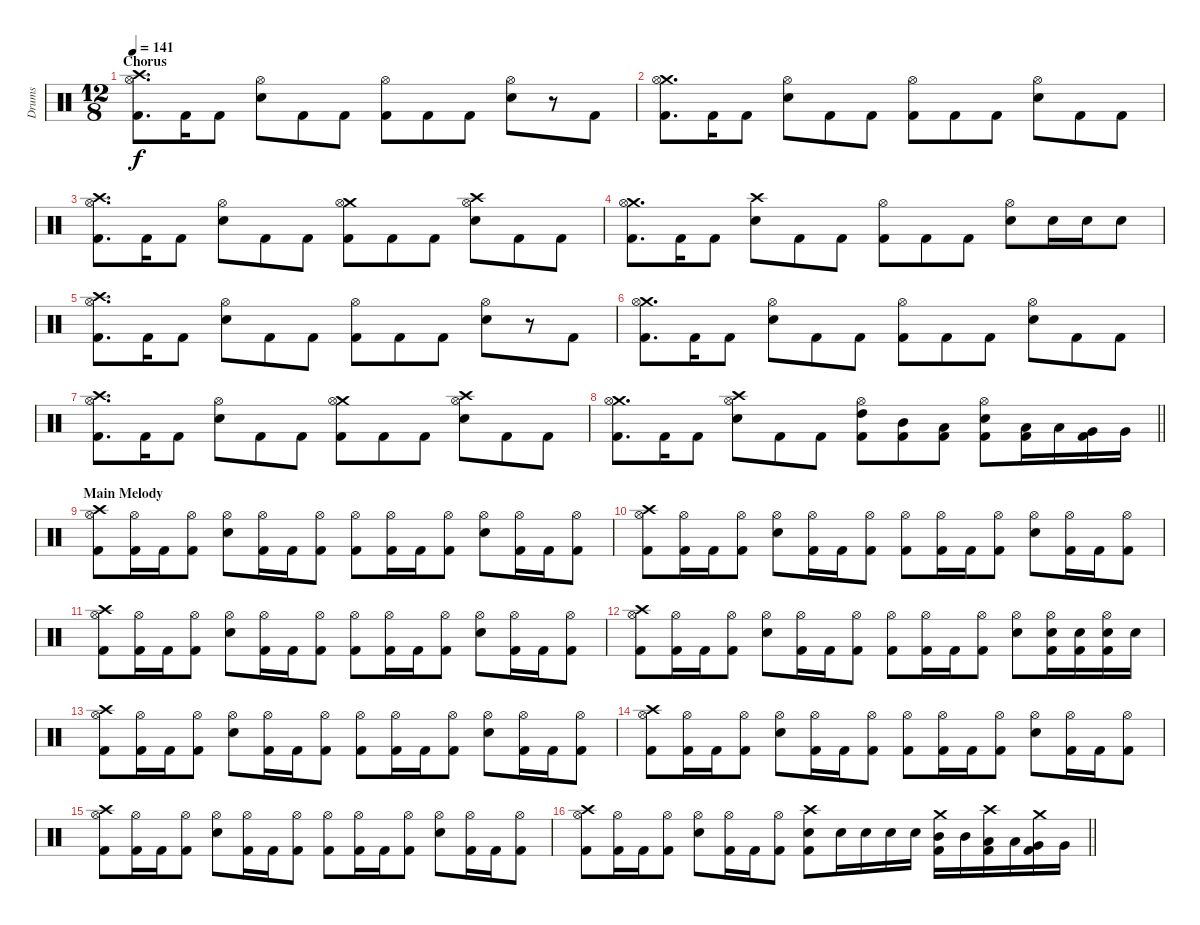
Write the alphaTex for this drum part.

\track ("Drums" "Drums") {instrument percussion}
\staff {score}
\articulation defaults
\ts (12 8)
\section ("" "Chorus")
\tempo 141
\clef neutral
\ks c
("Crash high (hit)" "Hi-Hat (open)" "Kick (hit) 2").8{d dy f} "Kick (hit) 2".16 "Kick (hit) 2".8 ("Hi-Hat (open)" "Snare (hit) 2").8 "Kick (hit) 2".8 "Kick (hit) 2".8 ("Hi-Hat (open)" "Kick (hit) 2").8 "Kick (hit) 2".8 "Kick (hit) 2".8 ("Hi-Hat (open)" "Snare (hit) 2").8 r.8 "Kick (hit) 2".8 |
("Crash medium (hit)" "Hi-Hat (open)" "Kick (hit) 2").8{d} "Kick (hit) 2".16 "Kick (hit) 2".8 ("Hi-Hat (open)" "Snare (hit) 2").8 "Kick (hit) 2".8 "Kick (hit) 2".8 ("Hi-Hat (open)" "Kick (hit) 2").8 "Kick (hit) 2".8 "Kick (hit) 2".8 ("Hi-Hat (open)" "Snare (hit) 2").8 "Kick (hit) 2".8 "Kick (hit) 2".8 |
("Crash high (hit)" "Hi-Hat (open)" "Kick (hit) 2").8{d} "Kick (hit) 2".16 "Kick (hit) 2".8 ("Hi-Hat (open)" "Snare (hit) 2").8 "Kick (hit) 2".8 "Kick (hit) 2".8 ("Crash medium (hit)" "Hi-Hat (open)" "Kick (hit) 2").8 "Kick (hit) 2".8 "Kick (hit) 2".8 ("Crash high (hit)" "Hi-Hat (open)" "Snare (hit) 2").8 "Kick (hit) 2".8 "Kick (hit) 2".8 |
("Crash medium (hit)" "Hi-Hat (open)" "Kick (hit) 2").8{d} "Kick (hit) 2".16 "Kick (hit) 2".8 ("Crash high (hit)" "Snare (hit) 2").8 "Kick (hit) 2".8 "Kick (hit) 2".8 ("Hi-Hat (open)" "Kick (hit) 2").8 "Kick (hit) 2".8 "Kick (hit) 2".8 ("Hi-Hat (open)" "Snare (hit) 2").8 "Snare (hit) 2".16 "Snare (hit) 2".16 "Snare (hit) 2".8 |
("Crash high (hit)" "Hi-Hat (open)" "Kick (hit) 2").8{d} "Kick (hit) 2".16 "Kick (hit) 2".8 ("Hi-Hat (open)" "Snare (hit) 2").8 "Kick (hit) 2".8 "Kick (hit) 2".8 ("Hi-Hat (open)" "Kick (hit) 2").8 "Kick (hit) 2".8 "Kick (hit) 2".8 ("Hi-Hat (open)" "Snare (hit) 2").8 r.8 "Kick (hit) 2".8 |
("Crash medium (hit)" "Hi-Hat (open)" "Kick (hit) 2").8{d} "Kick (hit) 2".16 "Kick (hit) 2".8 ("Hi-Hat (open)" "Snare (hit) 2").8 "Kick (hit) 2".8 "Kick (hit) 2".8 ("Hi-Hat (open)" "Kick (hit) 2").8 "Kick (hit) 2".8 "Kick (hit) 2".8 ("Hi-Hat (open)" "Snare (hit) 2").8 "Kick (hit) 2".8 "Kick (hit) 2".8 |
("Crash high (hit)" "Hi-Hat (open)" "Kick (hit) 2").8{d} "Kick (hit) 2".16 "Kick (hit) 2".8 ("Hi-Hat (open)" "Snare (hit) 2").8 "Kick (hit) 2".8 "Kick (hit) 2".8 ("Crash medium (hit)" "Hi-Hat (open)" "Kick (hit) 2").8 "Kick (hit) 2".8 "Kick (hit) 2".8 ("Crash high (hit)" "Hi-Hat (open)" "Snare (hit) 2").8 "Kick (hit) 2".8 "Kick (hit) 2".8 |
\barLineRight lightlight
("Crash medium (hit)" "Hi-Hat (open)" "Kick (hit) 2").8{d} "Kick (hit) 2".16 "Kick (hit) 2".8 ("Crash high (hit)" "Hi-Hat (open)" "Snare (hit) 2").8 "Kick (hit) 2".8 "Kick (hit) 2".8 ("Hi-Hat (open)" "High Tom (hit)" "Kick (hit) 2").8 ("Mid Tom (hit)" "Kick (hit) 2").8 ("Low Tom (hit)" "Kick (hit) 2").8 ("Hi-Hat (open)" "Snare (hit) 2" "Kick (hit) 2").8 ("Low Tom (hit)" "Kick (hit) 2").16 "Low Tom (hit)".16 ("Very Low Tom (hit)" "Kick (hit) 2").16 "Very Low Tom (hit)".16 |
\section ("" "Main Melody")
("Crash high (hit)" "Hi-Hat (open)" "Kick (hit) 2").8 ("Hi-Hat (open)" "Kick (hit) 2").16 "Kick (hit) 2".16 ("Hi-Hat (open)" "Kick (hit) 2").8 ("Hi-Hat (open)" "Snare (hit) 2").8 ("Hi-Hat (open)" "Kick (hit) 2").16 "Kick (hit) 2".16 ("Hi-Hat (open)" "Kick (hit) 2").8 ("Hi-Hat (open)" "Kick (hit) 2").8 ("Hi-Hat (open)" "Kick (hit) 2").16 "Kick (hit) 2".16 ("Hi-Hat (open)" "Kick (hit) 2").8 ("Hi-Hat (open)" "Snare (hit) 2").8 ("Hi-Hat (open)" "Kick (hit) 2").16 "Kick (hit) 2".16 ("Hi-Hat (open)" "Kick (hit) 2").8 |
("Crash high (hit)" "Hi-Hat (open)" "Kick (hit) 2").8 ("Hi-Hat (open)" "Kick (hit) 2").16 "Kick (hit) 2".16 ("Hi-Hat (open)" "Kick (hit) 2").8 ("Hi-Hat (open)" "Snare (hit) 2").8 ("Hi-Hat (open)" "Kick (hit) 2").16 "Kick (hit) 2".16 ("Hi-Hat (open)" "Kick (hit) 2").8 ("Hi-Hat (open)" "Kick (hit) 2").8 ("Hi-Hat (open)" "Kick (hit) 2").16 "Kick (hit) 2".16 ("Hi-Hat (open)" "Kick (hit) 2").8 ("Hi-Hat (open)" "Snare (hit) 2").8 ("Hi-Hat (open)" "Kick (hit) 2").16 "Kick (hit) 2".16 ("Hi-Hat (open)" "Kick (hit) 2").8 |
("Crash high (hit)" "Hi-Hat (open)" "Kick (hit) 2").8 ("Hi-Hat (open)" "Kick (hit) 2").16 "Kick (hit) 2".16 ("Hi-Hat (open)" "Kick (hit) 2").8 ("Hi-Hat (open)" "Snare (hit) 2").8 ("Hi-Hat (open)" "Kick (hit) 2").16 "Kick (hit) 2".16 ("Hi-Hat (open)" "Kick (hit) 2").8 ("Hi-Hat (open)" "Kick (hit) 2").8 ("Hi-Hat (open)" "Kick (hit) 2").16 "Kick (hit) 2".16 ("Hi-Hat (open)" "Kick (hit) 2").8 ("Hi-Hat (open)" "Snare (hit) 2").8 ("Hi-Hat (open)" "Kick (hit) 2").16 "Kick (hit) 2".16 ("Hi-Hat (open)" "Kick (hit) 2").8 |
("Crash high (hit)" "Hi-Hat (open)" "Kick (hit) 2").8 ("Hi-Hat (open)" "Kick (hit) 2").16 "Kick (hit) 2".16 ("Hi-Hat (open)" "Kick (hit) 2").8 ("Hi-Hat (open)" "Snare (hit) 2").8 ("Hi-Hat (open)" "Kick (hit) 2").16 "Kick (hit) 2".16 ("Hi-Hat (open)" "Kick (hit) 2").8 ("Hi-Hat (open)" "Kick (hit) 2").8 ("Hi-Hat (open)" "Kick (hit) 2").16 "Kick (hit) 2".16 ("Hi-Hat (open)" "Kick (hit) 2").8 ("Hi-Hat (open)" "Snare (hit) 2").8 ("Hi-Hat (open)" "Snare (hit) 2" "Kick (hit) 2").16 ("Snare (hit) 2" "Kick (hit) 2").16 ("Hi-Hat (open)" "Snare (hit) 2" "Kick (hit) 2").16 "Snare (hit) 2".16 |
("Crash high (hit)" "Hi-Hat (open)" "Kick (hit) 2").8 ("Hi-Hat (open)" "Kick (hit) 2").16 "Kick (hit) 2".16 ("Hi-Hat (open)" "Kick (hit) 2").8 ("Hi-Hat (open)" "Snare (hit) 2").8 ("Hi-Hat (open)" "Kick (hit) 2").16 "Kick (hit) 2".16 ("Hi-Hat (open)" "Kick (hit) 2").8 ("Hi-Hat (open)" "Kick (hit) 2").8 ("Hi-Hat (open)" "Kick (hit) 2").16 "Kick (hit) 2".16 ("Hi-Hat (open)" "Kick (hit) 2").8 ("Hi-Hat (open)" "Snare (hit) 2").8 ("Hi-Hat (open)" "Kick (hit) 2").16 "Kick (hit) 2".16 ("Hi-Hat (open)" "Kick (hit) 2").8 |
("Crash high (hit)" "Hi-Hat (open)" "Kick (hit) 2").8 ("Hi-Hat (open)" "Kick (hit) 2").16 "Kick (hit) 2".16 ("Hi-Hat (open)" "Kick (hit) 2").8 ("Hi-Hat (open)" "Snare (hit) 2").8 ("Hi-Hat (open)" "Kick (hit) 2").16 "Kick (hit) 2".16 ("Hi-Hat (open)" "Kick (hit) 2").8 ("Hi-Hat (open)" "Kick (hit) 2").8 ("Hi-Hat (open)" "Kick (hit) 2").16 "Kick (hit) 2".16 ("Hi-Hat (open)" "Kick (hit) 2").8 ("Hi-Hat (open)" "Snare (hit) 2").8 ("Hi-Hat (open)" "Kick (hit) 2").16 "Kick (hit) 2".16 ("Hi-Hat (open)" "Kick (hit) 2").8 |
("Crash high (hit)" "Hi-Hat (open)" "Kick (hit) 2").8 ("Hi-Hat (open)" "Kick (hit) 2").16 "Kick (hit) 2".16 ("Hi-Hat (open)" "Kick (hit) 2").8 ("Hi-Hat (open)" "Snare (hit) 2").8 ("Hi-Hat (open)" "Kick (hit) 2").16 "Kick (hit) 2".16 ("Hi-Hat (open)" "Kick (hit) 2").8 ("Hi-Hat (open)" "Kick (hit) 2").8 ("Hi-Hat (open)" "Kick (hit) 2").16 "Kick (hit) 2".16 ("Hi-Hat (open)" "Kick (hit) 2").8 ("Hi-Hat (open)" "Snare (hit) 2").8 ("Hi-Hat (open)" "Kick (hit) 2").16 "Kick (hit) 2".16 ("Hi-Hat (open)" "Kick (hit) 2").8 |
\barLineRight lightlight
("Crash high (hit)" "Hi-Hat (open)" "Kick (hit) 2").8 ("Hi-Hat (open)" "Kick (hit) 2").16 "Kick (hit) 2".16 ("Hi-Hat (open)" "Kick (hit) 2").8 ("Hi-Hat (open)" "Snare (hit) 2").8 ("Hi-Hat (open)" "Kick (hit) 2").16 "Kick (hit) 2".16 ("Hi-Hat (open)" "Kick (hit) 2").8 ("Crash high (hit)" "Snare (hit) 2" "Kick (hit) 2").8 "Snare (hit) 2".16 "Snare (hit) 2".16 "Snare (hit) 2".16 "Snare (hit) 2".16 ("Crash medium (hit)" "Mid Tom (hit)" "Kick (hit) 2").16 "Mid Tom (hit)".16 ("Crash high (hit)" "Low Tom (hit)" "Kick (hit) 2").16 "Low Tom (hit)".16 ("Crash medium (hit)" "Very Low Tom (hit)" "Kick (hit) 2").16 "Very Low Tom (hit)".16
